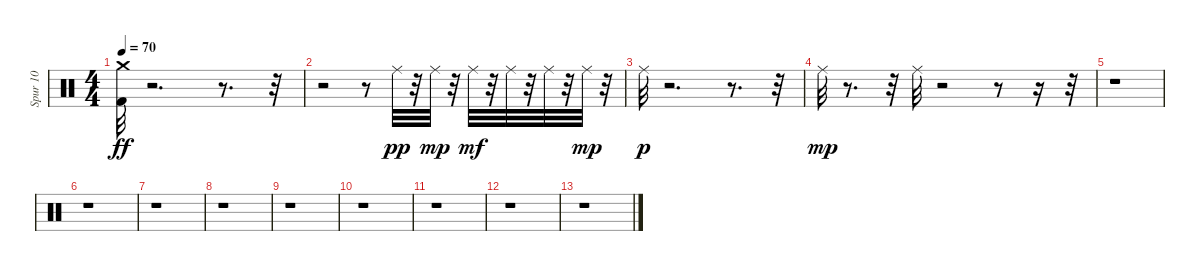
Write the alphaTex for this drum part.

\track ("Spur 10" "Spur 10") {instrument percussion}
\staff {score}
\articulation defaults
\ts (4 4)
\tempo 70
\clef neutral
\ks c
("Crash medium (hit)" "Kick (hit) 2").32{dy ff} r.2{d} r.8{d} r.32 |
r.2 r.8 "Ride (middle)".32{dy pp} r.32 "Ride (middle)".32{dy mp} r.32 "Ride (middle)".32{dy mf} r.32 "Ride (middle)".32 r.32 "Ride (middle)".32 r.32 "Ride (middle)".32{dy mp} r.32 |
"Ride (middle)".32{dy p} r.2{d} r.8{d} r.32 |
"Ride (middle)".32{dy mp} r.8{d} r.32 "Ride (middle)".32 r.2 r.8 r.16 r.32 |
r.1 |
r.1 |
r.1 |
r.1 |
r.1 |
r.1 |
r.1 |
r.1 |
r.1
